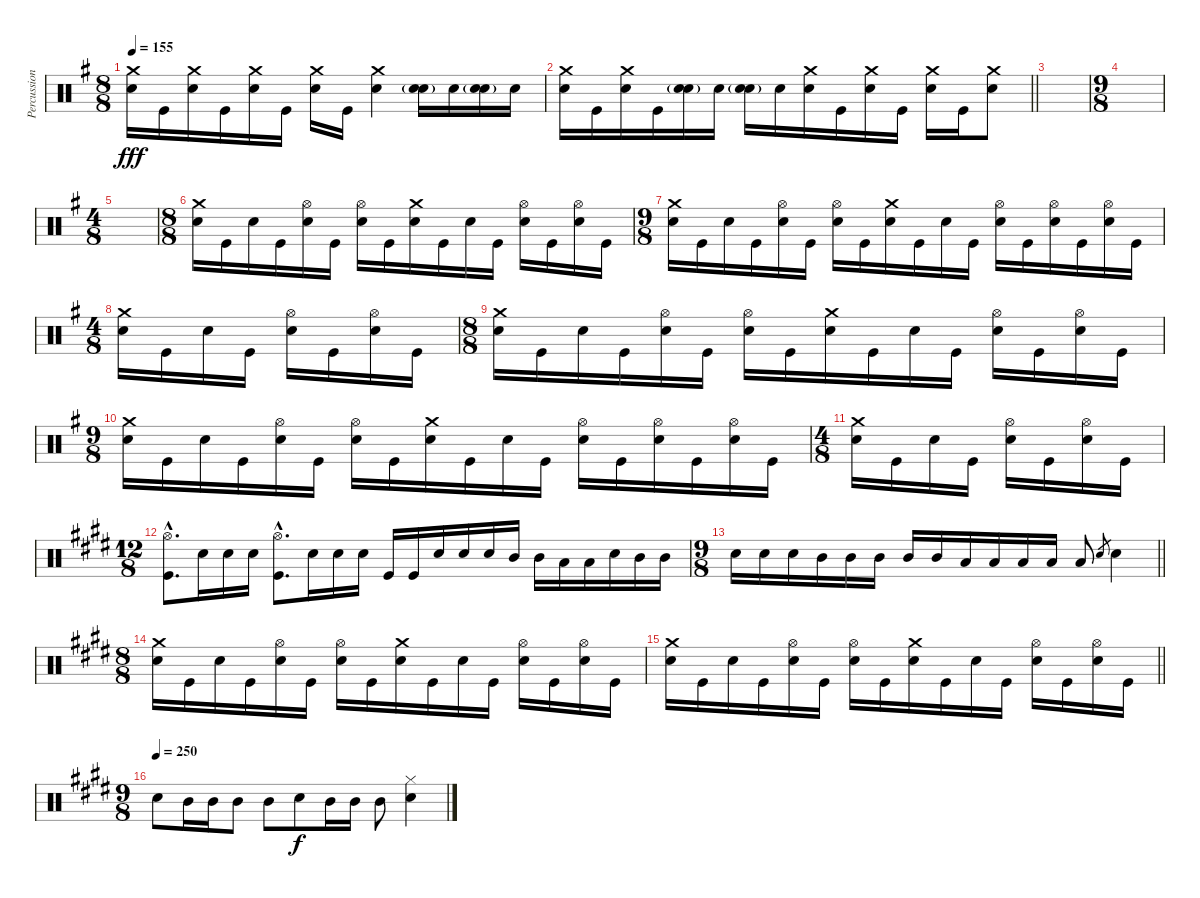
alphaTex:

\track ("Percussion" "Percussion") {instrument percussion}
\staff {score}
\articulation defaults
\ts (8 8)
\tempo 155
\clef neutral
\ks g
("Crash medium (hit)" "Electric Snare (hit)").16{dy fff} "Kick (hit)".16 ("Crash medium (hit)" "Electric Snare (hit)").16 "Kick (hit)".16 ("Crash medium (hit)" "Electric Snare (hit)").16 "Kick (hit)".16 ("Crash medium (hit)" "Electric Snare (hit)").16 "Kick (hit)".16 ("Crash medium (hit)" "Electric Snare (hit)").4 ("Snare (hit) 2"{g} "Electric Snare (hit)").16 "Electric Snare (hit)".16 ("Snare (hit) 2"{g} "Electric Snare (hit)").16 "Electric Snare (hit)".16 |
\barLineRight lightlight
("Crash medium (hit)" "Electric Snare (hit)").16 "Kick (hit)".16 ("Crash medium (hit)" "Electric Snare (hit)").16 "Kick (hit)".16 ("Snare (hit) 2"{g} "Electric Snare (hit)").16 "Electric Snare (hit)".16 ("Snare (hit) 2"{g} "Electric Snare (hit)").16 "Electric Snare (hit)".16 ("Crash medium (hit)" "Electric Snare (hit)").16 "Kick (hit)".16 ("Crash medium (hit)" "Electric Snare (hit)").16 "Kick (hit)".16 ("Crash medium (hit)" "Electric Snare (hit)").16 "Kick (hit)".16 ("Crash medium (hit)" "Electric Snare (hit)").8 |
|
\ts (9 8)
|
\ts (4 8)
|
\ts (8 8)
("Crash medium (hit)" "Electric Snare (hit)").16 "Kick (hit)".16 "Electric Snare (hit)".16 "Kick (hit)".16 ("Hi-Hat (open)" "Electric Snare (hit)").16 "Kick (hit)".16 ("Hi-Hat (open)" "Electric Snare (hit)").16 "Kick (hit)".16 ("Crash medium (hit)" "Electric Snare (hit)").16 "Kick (hit)".16 "Electric Snare (hit)".16 "Kick (hit)".16 ("Hi-Hat (open)" "Electric Snare (hit)").16 "Kick (hit)".16 ("Hi-Hat (open)" "Electric Snare (hit)").16 "Kick (hit)".16 |
\ts (9 8)
("Crash medium (hit)" "Electric Snare (hit)").16 "Kick (hit)".16 "Electric Snare (hit)".16 "Kick (hit)".16 ("Hi-Hat (open)" "Electric Snare (hit)").16 "Kick (hit)".16 ("Hi-Hat (open)" "Electric Snare (hit)").16 "Kick (hit)".16 ("Crash medium (hit)" "Electric Snare (hit)").16 "Kick (hit)".16 "Electric Snare (hit)".16 "Kick (hit)".16 ("Hi-Hat (open)" "Electric Snare (hit)").16 "Kick (hit)".16 ("Hi-Hat (open)" "Electric Snare (hit)").16 "Kick (hit)".16 ("Hi-Hat (open)" "Electric Snare (hit)").16 "Kick (hit)".16 |
\ts (4 8)
("Crash medium (hit)" "Electric Snare (hit)").16 "Kick (hit)".16 "Electric Snare (hit)".16 "Kick (hit)".16 ("Hi-Hat (open)" "Electric Snare (hit)").16 "Kick (hit)".16 ("Hi-Hat (open)" "Electric Snare (hit)").16 "Kick (hit)".16 |
\ts (8 8)
("Crash medium (hit)" "Electric Snare (hit)").16 "Kick (hit)".16 "Electric Snare (hit)".16 "Kick (hit)".16 ("Hi-Hat (open)" "Electric Snare (hit)").16 "Kick (hit)".16 ("Hi-Hat (open)" "Electric Snare (hit)").16 "Kick (hit)".16 ("Crash medium (hit)" "Electric Snare (hit)").16 "Kick (hit)".16 "Electric Snare (hit)".16 "Kick (hit)".16 ("Hi-Hat (open)" "Electric Snare (hit)").16 "Kick (hit)".16 ("Hi-Hat (open)" "Electric Snare (hit)").16 "Kick (hit)".16 |
\ts (9 8)
("Crash medium (hit)" "Electric Snare (hit)").16 "Kick (hit)".16 "Electric Snare (hit)".16 "Kick (hit)".16 ("Hi-Hat (open)" "Electric Snare (hit)").16 "Kick (hit)".16 ("Hi-Hat (open)" "Electric Snare (hit)").16 "Kick (hit)".16 ("Crash medium (hit)" "Electric Snare (hit)").16 "Kick (hit)".16 "Electric Snare (hit)".16 "Kick (hit)".16 ("Hi-Hat (open)" "Electric Snare (hit)").16 "Kick (hit)".16 ("Hi-Hat (open)" "Electric Snare (hit)").16 "Kick (hit)".16 ("Hi-Hat (open)" "Electric Snare (hit)").16 "Kick (hit)".16 |
\ts (4 8)
("Crash medium (hit)" "Electric Snare (hit)").16 "Kick (hit)".16 "Electric Snare (hit)".16 "Kick (hit)".16 ("Hi-Hat (open)" "Electric Snare (hit)").16 "Kick (hit)".16 ("Hi-Hat (open)" "Electric Snare (hit)").16 "Kick (hit)".16 |
\ts (12 8)
\ks e
("Hi-Hat (open)"{hac} "Kick (hit)"{hac}).8{d} "Electric Snare (hit)".16 "Electric Snare (hit)".16 "Electric Snare (hit)".16 ("Hi-Hat (open)"{hac} "Kick (hit)"{hac}).8{d} "Electric Snare (hit)".16 "Electric Snare (hit)".16 "Electric Snare (hit)".16 "Kick (hit)".16 "Kick (hit)".16 "Electric Snare (hit)".16 "Electric Snare (hit)".16 "Electric Snare (hit)".16 "Mid Tom (hit)".16 "Mid Tom (hit)".16 "Low Tom (hit)".16 "Low Tom (hit)".16 "Electric Snare (hit)".16 "Mid Tom (hit)".16 "Mid Tom (hit)".16 |
\ts (9 8)
\barLineRight lightlight "Electric Snare (hit)".16 "Electric Snare (hit)".16 "Electric Snare (hit)".16 "Mid Tom (hit)".16 "Mid Tom (hit)".16 "Mid Tom (hit)".16 "Mid Tom (hit)".16 "Mid Tom (hit)".16 "Low Tom (hit)".16 "Low Tom (hit)".16 "Low Tom (hit)".16 "Low Tom (hit)".16 "Low Tom (hit)".8 "Electric Snare (hit)".8{gr} "Electric Snare (hit)".4
|
\ts (8 8)
("Crash medium (hit)" "Electric Snare (hit)").16 "Kick (hit)".16 "Electric Snare (hit)".16 "Kick (hit)".16 ("Hi-Hat (open)" "Electric Snare (hit)").16 "Kick (hit)".16 ("Hi-Hat (open)" "Electric Snare (hit)").16 "Kick (hit)".16 ("Crash medium (hit)" "Electric Snare (hit)").16 "Kick (hit)".16 "Electric Snare (hit)".16 "Kick (hit)".16 ("Hi-Hat (open)" "Electric Snare (hit)").16 "Kick (hit)".16 ("Hi-Hat (open)" "Electric Snare (hit)").16 "Kick (hit)".16 |
\barLineRight lightlight
("Crash medium (hit)" "Electric Snare (hit)").16 "Kick (hit)".16 "Electric Snare (hit)".16 "Kick (hit)".16 ("Hi-Hat (open)" "Electric Snare (hit)").16 "Kick (hit)".16 ("Hi-Hat (open)" "Electric Snare (hit)").16 "Kick (hit)".16 ("Crash medium (hit)" "Electric Snare (hit)").16 "Kick (hit)".16 "Electric Snare (hit)".16 "Kick (hit)".16 ("Hi-Hat (open)" "Electric Snare (hit)").16 "Kick (hit)".16 ("Hi-Hat (open)" "Electric Snare (hit)").16 "Kick (hit)".16 |
\ts (9 8)
\tempo (250)
"Electric Snare (hit)".8 "Mid Tom (hit)".16 "Mid Tom (hit)".16 "Mid Tom (hit)".8 "Mid Tom (hit)".8 "Electric Snare (hit)".8{dy f} "Mid Tom (hit)".16 "Mid Tom (hit)".16 "Mid Tom (hit)".8 ("Hi-Hat (closed)" "Electric Snare (hit)").4
